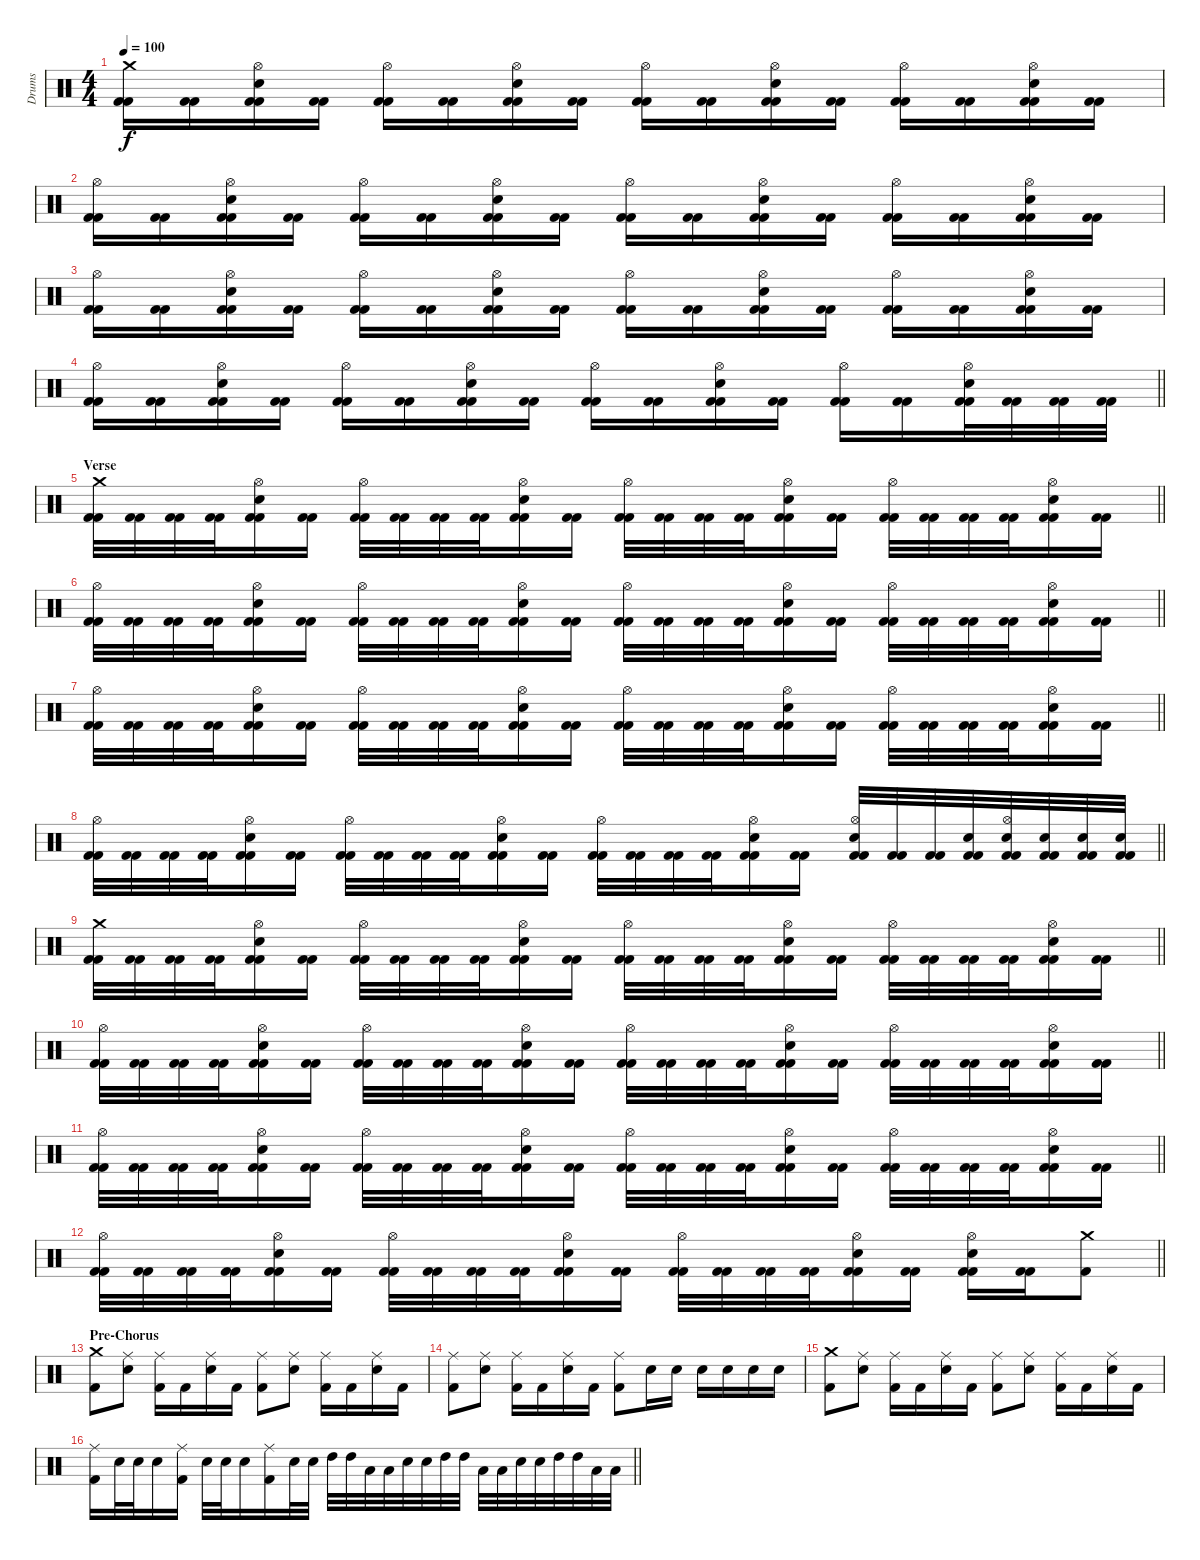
\track ("Drums" "Drums") {instrument percussion}
\staff {score}
\articulation defaults
\ts (4 4)
\tempo 100
\clef neutral
\ks c
("Crash medium (hit)" "Kick (hit) 2" "Kick (hit) 2").16{dy f} ("Kick (hit) 2" "Kick (hit) 2").16 ("Hi-Hat (open)" "Electric Snare (hit)" "Kick (hit) 2" "Kick (hit) 2").16 ("Kick (hit) 2" "Kick (hit) 2").16 ("Hi-Hat (open)" "Kick (hit) 2" "Kick (hit) 2").16 ("Kick (hit) 2" "Kick (hit) 2").16 ("Hi-Hat (open)" "Electric Snare (hit)" "Kick (hit) 2" "Kick (hit) 2").16 ("Kick (hit) 2" "Kick (hit) 2").16 ("Hi-Hat (open)" "Kick (hit) 2" "Kick (hit) 2").16 ("Kick (hit) 2" "Kick (hit) 2").16 ("Hi-Hat (open)" "Electric Snare (hit)" "Kick (hit) 2" "Kick (hit) 2").16 ("Kick (hit) 2" "Kick (hit) 2").16 ("Hi-Hat (open)" "Kick (hit) 2" "Kick (hit) 2").16 ("Kick (hit) 2" "Kick (hit) 2").16 ("Hi-Hat (open)" "Electric Snare (hit)" "Kick (hit) 2" "Kick (hit) 2").16 ("Kick (hit) 2" "Kick (hit) 2").16 |
("Hi-Hat (open)" "Kick (hit) 2" "Kick (hit) 2").16 ("Kick (hit) 2" "Kick (hit) 2").16 ("Hi-Hat (open)" "Electric Snare (hit)" "Kick (hit) 2" "Kick (hit) 2").16 ("Kick (hit) 2" "Kick (hit) 2").16 ("Hi-Hat (open)" "Kick (hit) 2" "Kick (hit) 2").16 ("Kick (hit) 2" "Kick (hit) 2").16 ("Hi-Hat (open)" "Electric Snare (hit)" "Kick (hit) 2" "Kick (hit) 2").16 ("Kick (hit) 2" "Kick (hit) 2").16 ("Hi-Hat (open)" "Kick (hit) 2" "Kick (hit) 2").16 ("Kick (hit) 2" "Kick (hit) 2").16 ("Hi-Hat (open)" "Electric Snare (hit)" "Kick (hit) 2" "Kick (hit) 2").16 ("Kick (hit) 2" "Kick (hit) 2").16 ("Hi-Hat (open)" "Kick (hit) 2" "Kick (hit) 2").16 ("Kick (hit) 2" "Kick (hit) 2").16 ("Hi-Hat (open)" "Electric Snare (hit)" "Kick (hit) 2" "Kick (hit) 2").16 ("Kick (hit) 2" "Kick (hit) 2").16 |
("Hi-Hat (open)" "Kick (hit) 2" "Kick (hit) 2").16 ("Kick (hit) 2" "Kick (hit) 2").16 ("Hi-Hat (open)" "Electric Snare (hit)" "Kick (hit) 2" "Kick (hit) 2").16 ("Kick (hit) 2" "Kick (hit) 2").16 ("Hi-Hat (open)" "Kick (hit) 2" "Kick (hit) 2").16 ("Kick (hit) 2" "Kick (hit) 2").16 ("Hi-Hat (open)" "Electric Snare (hit)" "Kick (hit) 2" "Kick (hit) 2").16 ("Kick (hit) 2" "Kick (hit) 2").16 ("Hi-Hat (open)" "Kick (hit) 2" "Kick (hit) 2").16 ("Kick (hit) 2" "Kick (hit) 2").16 ("Hi-Hat (open)" "Electric Snare (hit)" "Kick (hit) 2" "Kick (hit) 2").16 ("Kick (hit) 2" "Kick (hit) 2").16 ("Hi-Hat (open)" "Kick (hit) 2" "Kick (hit) 2").16 ("Kick (hit) 2" "Kick (hit) 2").16 ("Hi-Hat (open)" "Electric Snare (hit)" "Kick (hit) 2" "Kick (hit) 2").16 ("Kick (hit) 2" "Kick (hit) 2").16 |
\barLineRight lightlight
("Hi-Hat (open)" "Kick (hit) 2" "Kick (hit) 2").16 ("Kick (hit) 2" "Kick (hit) 2").16 ("Hi-Hat (open)" "Electric Snare (hit)" "Kick (hit) 2" "Kick (hit) 2").16 ("Kick (hit) 2" "Kick (hit) 2").16 ("Hi-Hat (open)" "Kick (hit) 2" "Kick (hit) 2").16 ("Kick (hit) 2" "Kick (hit) 2").16 ("Hi-Hat (open)" "Electric Snare (hit)" "Kick (hit) 2" "Kick (hit) 2").16 ("Kick (hit) 2" "Kick (hit) 2").16 ("Hi-Hat (open)" "Kick (hit) 2" "Kick (hit) 2").16 ("Kick (hit) 2" "Kick (hit) 2").16 ("Hi-Hat (open)" "Electric Snare (hit)" "Kick (hit) 2" "Kick (hit) 2").16 ("Kick (hit) 2" "Kick (hit) 2").16 ("Hi-Hat (open)" "Kick (hit) 2" "Kick (hit) 2").16 ("Kick (hit) 2" "Kick (hit) 2").16 ("Hi-Hat (open)" "Electric Snare (hit)" "Kick (hit) 2" "Kick (hit) 2").32 ("Kick (hit) 2" "Kick (hit) 2").32 ("Kick (hit) 2" "Kick (hit) 2").32 ("Kick (hit) 2" "Kick (hit) 2").32 |
\section ("" "Verse")
\barLineRight lightlight
("Crash medium (hit)" "Kick (hit) 2" "Kick (hit) 2").32 ("Kick (hit) 2" "Kick (hit) 2").32 ("Kick (hit) 2" "Kick (hit) 2").32 ("Kick (hit) 2" "Kick (hit) 2").32 ("Hi-Hat (open)" "Electric Snare (hit)" "Kick (hit) 2" "Kick (hit) 2").16 ("Kick (hit) 2" "Kick (hit) 2").16 ("Hi-Hat (open)" "Kick (hit) 2" "Kick (hit) 2").32 ("Kick (hit) 2" "Kick (hit) 2").32 ("Kick (hit) 2" "Kick (hit) 2").32 ("Kick (hit) 2" "Kick (hit) 2").32 ("Hi-Hat (open)" "Electric Snare (hit)" "Kick (hit) 2" "Kick (hit) 2").16 ("Kick (hit) 2" "Kick (hit) 2").16 ("Hi-Hat (open)" "Kick (hit) 2" "Kick (hit) 2").32 ("Kick (hit) 2" "Kick (hit) 2").32 ("Kick (hit) 2" "Kick (hit) 2").32 ("Kick (hit) 2" "Kick (hit) 2").32 ("Hi-Hat (open)" "Electric Snare (hit)" "Kick (hit) 2" "Kick (hit) 2").16 ("Kick (hit) 2" "Kick (hit) 2").16 ("Hi-Hat (open)" "Kick (hit) 2" "Kick (hit) 2").32 ("Kick (hit) 2" "Kick (hit) 2").32 ("Kick (hit) 2" "Kick (hit) 2").32 ("Kick (hit) 2" "Kick (hit) 2").32 ("Hi-Hat (open)" "Electric Snare (hit)" "Kick (hit) 2" "Kick (hit) 2").16 ("Kick (hit) 2" "Kick (hit) 2").16 |
\barLineRight lightlight
("Hi-Hat (open)" "Kick (hit) 2" "Kick (hit) 2").32 ("Kick (hit) 2" "Kick (hit) 2").32 ("Kick (hit) 2" "Kick (hit) 2").32 ("Kick (hit) 2" "Kick (hit) 2").32 ("Hi-Hat (open)" "Electric Snare (hit)" "Kick (hit) 2" "Kick (hit) 2").16 ("Kick (hit) 2" "Kick (hit) 2").16 ("Hi-Hat (open)" "Kick (hit) 2" "Kick (hit) 2").32 ("Kick (hit) 2" "Kick (hit) 2").32 ("Kick (hit) 2" "Kick (hit) 2").32 ("Kick (hit) 2" "Kick (hit) 2").32 ("Hi-Hat (open)" "Electric Snare (hit)" "Kick (hit) 2" "Kick (hit) 2").16 ("Kick (hit) 2" "Kick (hit) 2").16 ("Hi-Hat (open)" "Kick (hit) 2" "Kick (hit) 2").32 ("Kick (hit) 2" "Kick (hit) 2").32 ("Kick (hit) 2" "Kick (hit) 2").32 ("Kick (hit) 2" "Kick (hit) 2").32 ("Hi-Hat (open)" "Electric Snare (hit)" "Kick (hit) 2" "Kick (hit) 2").16 ("Kick (hit) 2" "Kick (hit) 2").16 ("Hi-Hat (open)" "Kick (hit) 2" "Kick (hit) 2").32 ("Kick (hit) 2" "Kick (hit) 2").32 ("Kick (hit) 2" "Kick (hit) 2").32 ("Kick (hit) 2" "Kick (hit) 2").32 ("Hi-Hat (open)" "Electric Snare (hit)" "Kick (hit) 2" "Kick (hit) 2").16 ("Kick (hit) 2" "Kick (hit) 2").16 |
\barLineRight lightlight
("Hi-Hat (open)" "Kick (hit) 2" "Kick (hit) 2").32 ("Kick (hit) 2" "Kick (hit) 2").32 ("Kick (hit) 2" "Kick (hit) 2").32 ("Kick (hit) 2" "Kick (hit) 2").32 ("Hi-Hat (open)" "Electric Snare (hit)" "Kick (hit) 2" "Kick (hit) 2").16 ("Kick (hit) 2" "Kick (hit) 2").16 ("Hi-Hat (open)" "Kick (hit) 2" "Kick (hit) 2").32 ("Kick (hit) 2" "Kick (hit) 2").32 ("Kick (hit) 2" "Kick (hit) 2").32 ("Kick (hit) 2" "Kick (hit) 2").32 ("Hi-Hat (open)" "Electric Snare (hit)" "Kick (hit) 2" "Kick (hit) 2").16 ("Kick (hit) 2" "Kick (hit) 2").16 ("Hi-Hat (open)" "Kick (hit) 2" "Kick (hit) 2").32 ("Kick (hit) 2" "Kick (hit) 2").32 ("Kick (hit) 2" "Kick (hit) 2").32 ("Kick (hit) 2" "Kick (hit) 2").32 ("Hi-Hat (open)" "Electric Snare (hit)" "Kick (hit) 2" "Kick (hit) 2").16 ("Kick (hit) 2" "Kick (hit) 2").16 ("Hi-Hat (open)" "Kick (hit) 2" "Kick (hit) 2").32 ("Kick (hit) 2" "Kick (hit) 2").32 ("Kick (hit) 2" "Kick (hit) 2").32 ("Kick (hit) 2" "Kick (hit) 2").32 ("Hi-Hat (open)" "Electric Snare (hit)" "Kick (hit) 2" "Kick (hit) 2").16 ("Kick (hit) 2" "Kick (hit) 2").16 |
\barLineRight lightlight
("Hi-Hat (open)" "Kick (hit) 2" "Kick (hit) 2").32 ("Kick (hit) 2" "Kick (hit) 2").32 ("Kick (hit) 2" "Kick (hit) 2").32 ("Kick (hit) 2" "Kick (hit) 2").32 ("Hi-Hat (open)" "Electric Snare (hit)" "Kick (hit) 2" "Kick (hit) 2").16 ("Kick (hit) 2" "Kick (hit) 2").16 ("Hi-Hat (open)" "Kick (hit) 2" "Kick (hit) 2").32 ("Kick (hit) 2" "Kick (hit) 2").32 ("Kick (hit) 2" "Kick (hit) 2").32 ("Kick (hit) 2" "Kick (hit) 2").32 ("Hi-Hat (open)" "Electric Snare (hit)" "Kick (hit) 2" "Kick (hit) 2").16 ("Kick (hit) 2" "Kick (hit) 2").16 ("Hi-Hat (open)" "Kick (hit) 2" "Kick (hit) 2").32 ("Kick (hit) 2" "Kick (hit) 2").32 ("Kick (hit) 2" "Kick (hit) 2").32 ("Kick (hit) 2" "Kick (hit) 2").32 ("Hi-Hat (open)" "Electric Snare (hit)" "Kick (hit) 2" "Kick (hit) 2").16 ("Kick (hit) 2" "Kick (hit) 2").16 ("Hi-Hat (open)" "Electric Snare (hit)" "Kick (hit) 2" "Kick (hit) 2").32 ("Kick (hit) 2" "Kick (hit) 2").32 ("Kick (hit) 2" "Kick (hit) 2").32 ("Electric Snare (hit)" "Kick (hit) 2" "Kick (hit) 2").32 ("Hi-Hat (open)" "Electric Snare (hit)" "Kick (hit) 2" "Kick (hit) 2").32 ("Electric Snare (hit)" "Kick (hit) 2" "Kick (hit) 2").32 ("Electric Snare (hit)" "Kick (hit) 2" "Kick (hit) 2").32 ("Electric Snare (hit)" "Kick (hit) 2" "Kick (hit) 2").32 |
\barLineRight lightlight
("Crash medium (hit)" "Kick (hit) 2" "Kick (hit) 2").32 ("Kick (hit) 2" "Kick (hit) 2").32 ("Kick (hit) 2" "Kick (hit) 2").32 ("Kick (hit) 2" "Kick (hit) 2").32 ("Hi-Hat (open)" "Electric Snare (hit)" "Kick (hit) 2" "Kick (hit) 2").16 ("Kick (hit) 2" "Kick (hit) 2").16 ("Hi-Hat (open)" "Kick (hit) 2" "Kick (hit) 2").32 ("Kick (hit) 2" "Kick (hit) 2").32 ("Kick (hit) 2" "Kick (hit) 2").32 ("Kick (hit) 2" "Kick (hit) 2").32 ("Hi-Hat (open)" "Electric Snare (hit)" "Kick (hit) 2" "Kick (hit) 2").16 ("Kick (hit) 2" "Kick (hit) 2").16 ("Hi-Hat (open)" "Kick (hit) 2" "Kick (hit) 2").32 ("Kick (hit) 2" "Kick (hit) 2").32 ("Kick (hit) 2" "Kick (hit) 2").32 ("Kick (hit) 2" "Kick (hit) 2").32 ("Hi-Hat (open)" "Electric Snare (hit)" "Kick (hit) 2" "Kick (hit) 2").16 ("Kick (hit) 2" "Kick (hit) 2").16 ("Hi-Hat (open)" "Kick (hit) 2" "Kick (hit) 2").32 ("Kick (hit) 2" "Kick (hit) 2").32 ("Kick (hit) 2" "Kick (hit) 2").32 ("Kick (hit) 2" "Kick (hit) 2").32 ("Hi-Hat (open)" "Electric Snare (hit)" "Kick (hit) 2" "Kick (hit) 2").16 ("Kick (hit) 2" "Kick (hit) 2").16 |
\barLineRight lightlight
("Hi-Hat (open)" "Kick (hit) 2" "Kick (hit) 2").32 ("Kick (hit) 2" "Kick (hit) 2").32 ("Kick (hit) 2" "Kick (hit) 2").32 ("Kick (hit) 2" "Kick (hit) 2").32 ("Hi-Hat (open)" "Electric Snare (hit)" "Kick (hit) 2" "Kick (hit) 2").16 ("Kick (hit) 2" "Kick (hit) 2").16 ("Hi-Hat (open)" "Kick (hit) 2" "Kick (hit) 2").32 ("Kick (hit) 2" "Kick (hit) 2").32 ("Kick (hit) 2" "Kick (hit) 2").32 ("Kick (hit) 2" "Kick (hit) 2").32 ("Hi-Hat (open)" "Electric Snare (hit)" "Kick (hit) 2" "Kick (hit) 2").16 ("Kick (hit) 2" "Kick (hit) 2").16 ("Hi-Hat (open)" "Kick (hit) 2" "Kick (hit) 2").32 ("Kick (hit) 2" "Kick (hit) 2").32 ("Kick (hit) 2" "Kick (hit) 2").32 ("Kick (hit) 2" "Kick (hit) 2").32 ("Hi-Hat (open)" "Electric Snare (hit)" "Kick (hit) 2" "Kick (hit) 2").16 ("Kick (hit) 2" "Kick (hit) 2").16 ("Hi-Hat (open)" "Kick (hit) 2" "Kick (hit) 2").32 ("Kick (hit) 2" "Kick (hit) 2").32 ("Kick (hit) 2" "Kick (hit) 2").32 ("Kick (hit) 2" "Kick (hit) 2").32 ("Hi-Hat (open)" "Electric Snare (hit)" "Kick (hit) 2" "Kick (hit) 2").16 ("Kick (hit) 2" "Kick (hit) 2").16 |
\barLineRight lightlight
("Hi-Hat (open)" "Kick (hit) 2" "Kick (hit) 2").32 ("Kick (hit) 2" "Kick (hit) 2").32 ("Kick (hit) 2" "Kick (hit) 2").32 ("Kick (hit) 2" "Kick (hit) 2").32 ("Hi-Hat (open)" "Electric Snare (hit)" "Kick (hit) 2" "Kick (hit) 2").16 ("Kick (hit) 2" "Kick (hit) 2").16 ("Hi-Hat (open)" "Kick (hit) 2" "Kick (hit) 2").32 ("Kick (hit) 2" "Kick (hit) 2").32 ("Kick (hit) 2" "Kick (hit) 2").32 ("Kick (hit) 2" "Kick (hit) 2").32 ("Hi-Hat (open)" "Electric Snare (hit)" "Kick (hit) 2" "Kick (hit) 2").16 ("Kick (hit) 2" "Kick (hit) 2").16 ("Hi-Hat (open)" "Kick (hit) 2" "Kick (hit) 2").32 ("Kick (hit) 2" "Kick (hit) 2").32 ("Kick (hit) 2" "Kick (hit) 2").32 ("Kick (hit) 2" "Kick (hit) 2").32 ("Hi-Hat (open)" "Electric Snare (hit)" "Kick (hit) 2" "Kick (hit) 2").16 ("Kick (hit) 2" "Kick (hit) 2").16 ("Hi-Hat (open)" "Kick (hit) 2" "Kick (hit) 2").32 ("Kick (hit) 2" "Kick (hit) 2").32 ("Kick (hit) 2" "Kick (hit) 2").32 ("Kick (hit) 2" "Kick (hit) 2").32 ("Hi-Hat (open)" "Electric Snare (hit)" "Kick (hit) 2" "Kick (hit) 2").16 ("Kick (hit) 2" "Kick (hit) 2").16 |
\barLineRight lightlight
("Hi-Hat (open)" "Kick (hit) 2" "Kick (hit) 2").32 ("Kick (hit) 2" "Kick (hit) 2").32 ("Kick (hit) 2" "Kick (hit) 2").32 ("Kick (hit) 2" "Kick (hit) 2").32 ("Hi-Hat (open)" "Electric Snare (hit)" "Kick (hit) 2" "Kick (hit) 2").16 ("Kick (hit) 2" "Kick (hit) 2").16 ("Hi-Hat (open)" "Kick (hit) 2" "Kick (hit) 2").32 ("Kick (hit) 2" "Kick (hit) 2").32 ("Kick (hit) 2" "Kick (hit) 2").32 ("Kick (hit) 2" "Kick (hit) 2").32 ("Hi-Hat (open)" "Electric Snare (hit)" "Kick (hit) 2" "Kick (hit) 2").16 ("Kick (hit) 2" "Kick (hit) 2").16 ("Hi-Hat (open)" "Kick (hit) 2" "Kick (hit) 2").32 ("Kick (hit) 2" "Kick (hit) 2").32 ("Kick (hit) 2" "Kick (hit) 2").32 ("Kick (hit) 2" "Kick (hit) 2").32 ("Hi-Hat (open)" "Electric Snare (hit)" "Kick (hit) 2" "Kick (hit) 2").16 ("Kick (hit) 2" "Kick (hit) 2").16 ("Hi-Hat (open)" "Electric Snare (hit)" "Kick (hit) 2" "Kick (hit) 2").16 ("Kick (hit) 2" "Kick (hit) 2").16 ("Crash medium (hit)" "Kick (hit) 2").8 |
\section ("" "Pre-Chorus")
("Crash medium (hit)" "Kick (hit) 2").8 ("Ride (middle)" "Electric Snare (hit)").8 ("Ride (middle)" "Kick (hit) 2").16 "Kick (hit) 2".16 ("Ride (middle)" "Electric Snare (hit)").16 "Kick (hit) 2".16 ("Ride (middle)" "Kick (hit) 2").8 ("Ride (middle)" "Electric Snare (hit)").8 ("Ride (middle)" "Kick (hit) 2").16 "Kick (hit) 2".16 ("Ride (middle)" "Electric Snare (hit)").16 "Kick (hit) 2".16 |
("Ride (middle)" "Kick (hit) 2").8 ("Ride (middle)" "Electric Snare (hit)").8 ("Ride (middle)" "Kick (hit) 2").16 "Kick (hit) 2".16 ("Ride (middle)" "Electric Snare (hit)").16 "Kick (hit) 2".16 ("Ride (middle)" "Kick (hit) 2").8 "Electric Snare (hit)".16 "Snare (hit) 2".16 "Snare (hit) 2".16 "Electric Snare (hit)".16 "Snare (hit) 2".16 "Snare (hit) 2".16 |
("Crash medium (hit)" "Kick (hit) 2").8 ("Ride (middle)" "Electric Snare (hit)").8 ("Ride (middle)" "Kick (hit) 2").16 "Kick (hit) 2".16 ("Ride (middle)" "Electric Snare (hit)").16 "Kick (hit) 2".16 ("Ride (middle)" "Kick (hit) 2").8 ("Ride (middle)" "Electric Snare (hit)").8 ("Ride (middle)" "Kick (hit) 2").16 "Kick (hit) 2".16 ("Ride (middle)" "Electric Snare (hit)").16 "Kick (hit) 2".16 |
\barLineRight lightlight
("Ride (middle)" "Kick (hit) 2").16 "Electric Snare (hit)".32 "Electric Snare (hit)".32 "Electric Snare (hit)".16 ("Ride (middle)" "Kick (hit) 2").16 "Electric Snare (hit)".32 "Electric Snare (hit)".32 "Electric Snare (hit)".16 ("Ride (middle)" "Kick (hit) 2").16 "Electric Snare (hit)".32 "Electric Snare (hit)".32 "High Tom (hit)".32 "High Tom (hit)".32 "Low Tom (hit)".32 "Low Tom (hit)".32 "Electric Snare (hit)".32 "Electric Snare (hit)".32 "High Tom (hit)".32 "High Tom (hit)".32 "Low Tom (hit)".32 "Low Tom (hit)".32 "Electric Snare (hit)".32 "Electric Snare (hit)".32 "High Tom (hit)".32 "High Tom (hit)".32 "Low Tom (hit)".32 "Low Tom (hit)".32
